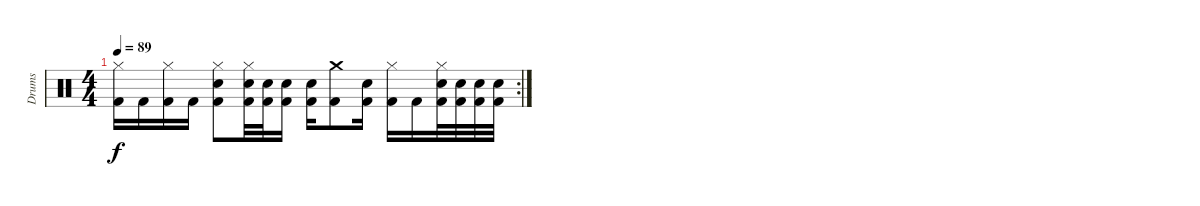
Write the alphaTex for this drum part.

\track ("Drums" "Drums") {instrument percussion}
\staff {score}
\articulation defaults
\rc 2
\ts (4 4)
\tempo 89
\clef neutral
\ks c
("Hi-Hat (closed)" "Kick (hit) 2").16{dy f} "Kick (hit) 2".16 ("Hi-Hat (closed)" "Kick (hit) 2").16 "Kick (hit) 2".16 ("Hi-Hat (closed)" "Snare (hit) 2" "Kick (hit) 2").8 ("Hi-Hat (closed)" "Snare (hit) 2" "Kick (hit) 2").32 ("Snare (hit) 2" "Kick (hit) 2").32 ("Snare (hit) 2" "Kick (hit) 2").16 ("Snare (hit) 2" "Kick (hit) 2").16 ("Crash medium (hit)" "Kick (hit) 2").8 ("Snare (hit) 2" "Kick (hit) 2").16 ("Hi-Hat (closed)" "Kick (hit) 2").16 "Kick (hit) 2".16 ("Hi-Hat (closed)" "Snare (hit) 2" "Kick (hit) 2").32 ("Snare (hit) 2" "Kick (hit) 2").32 ("Snare (hit) 2" "Kick (hit) 2").32 ("Snare (hit) 2" "Kick (hit) 2").32
